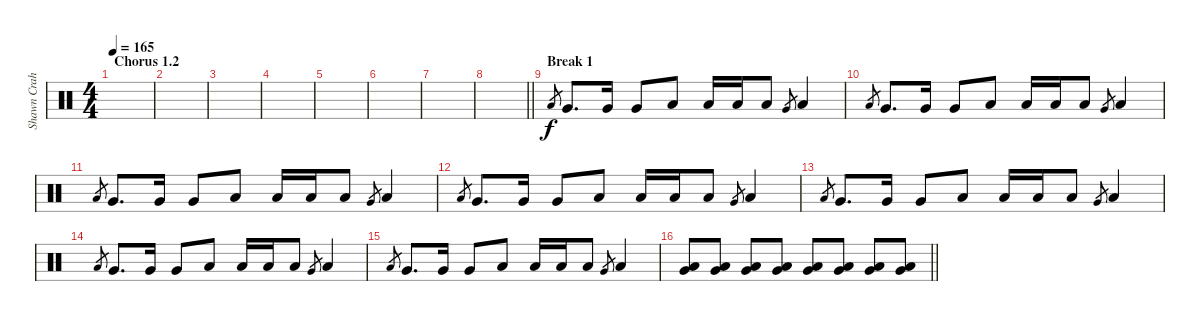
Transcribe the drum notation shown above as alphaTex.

\track ("Shawn Crahan" "Shawn Crah") {instrument percussion}
\staff {score}
\articulation defaults
\ts (4 4)
\section ("" "Chorus 1.2")
\tempo 165
\clef neutral
\ks c
|
|
|
|
|
|
|
\barLineRight lightlight
|
\section ("" "Break 1")
"Low Floor Tom (hit)".8{gr} "Very Low Tom (hit)".8{d} "Very Low Tom (hit)".16 "Very Low Tom (hit)".8 "Low Floor Tom (hit)".8 "Low Floor Tom (hit)".16 "Low Floor Tom (hit)".16 "Low Floor Tom (hit)".8 "Very Low Tom (hit)".8{gr} "Low Floor Tom (hit)".4 |
"Low Floor Tom (hit)".8{gr} "Very Low Tom (hit)".8{d} "Very Low Tom (hit)".16 "Very Low Tom (hit)".8 "Low Floor Tom (hit)".8 "Low Floor Tom (hit)".16 "Low Floor Tom (hit)".16 "Low Floor Tom (hit)".8 "Very Low Tom (hit)".8{gr} "Low Floor Tom (hit)".4 |
"Low Floor Tom (hit)".8{gr} "Very Low Tom (hit)".8{d} "Very Low Tom (hit)".16 "Very Low Tom (hit)".8 "Low Floor Tom (hit)".8 "Low Floor Tom (hit)".16 "Low Floor Tom (hit)".16 "Low Floor Tom (hit)".8 "Very Low Tom (hit)".8{gr} "Low Floor Tom (hit)".4 |
"Low Floor Tom (hit)".8{gr} "Very Low Tom (hit)".8{d} "Very Low Tom (hit)".16 "Very Low Tom (hit)".8 "Low Floor Tom (hit)".8 "Low Floor Tom (hit)".16 "Low Floor Tom (hit)".16 "Low Floor Tom (hit)".8 "Very Low Tom (hit)".8{gr} "Low Floor Tom (hit)".4 |
"Low Floor Tom (hit)".8{gr} "Very Low Tom (hit)".8{d} "Very Low Tom (hit)".16 "Very Low Tom (hit)".8 "Low Floor Tom (hit)".8 "Low Floor Tom (hit)".16 "Low Floor Tom (hit)".16 "Low Floor Tom (hit)".8 "Very Low Tom (hit)".8{gr} "Low Floor Tom (hit)".4 |
"Low Floor Tom (hit)".8{gr} "Very Low Tom (hit)".8{d} "Very Low Tom (hit)".16 "Very Low Tom (hit)".8 "Low Floor Tom (hit)".8 "Low Floor Tom (hit)".16 "Low Floor Tom (hit)".16 "Low Floor Tom (hit)".8 "Very Low Tom (hit)".8{gr} "Low Floor Tom (hit)".4 |
"Low Floor Tom (hit)".8{gr} "Very Low Tom (hit)".8{d} "Very Low Tom (hit)".16 "Very Low Tom (hit)".8 "Low Floor Tom (hit)".8 "Low Floor Tom (hit)".16 "Low Floor Tom (hit)".16 "Low Floor Tom (hit)".8 "Very Low Tom (hit)".8{gr} "Low Floor Tom (hit)".4 |
\barLineRight lightlight
("Very Low Tom (hit)" "Low Floor Tom (hit)").8 ("Very Low Tom (hit)" "Low Floor Tom (hit)").8 ("Very Low Tom (hit)" "Low Floor Tom (hit)").8 ("Very Low Tom (hit)" "Low Floor Tom (hit)").8 ("Very Low Tom (hit)" "Low Floor Tom (hit)").8 ("Very Low Tom (hit)" "Low Floor Tom (hit)").8 ("Very Low Tom (hit)" "Low Floor Tom (hit)").8 ("Very Low Tom (hit)" "Low Floor Tom (hit)").8
